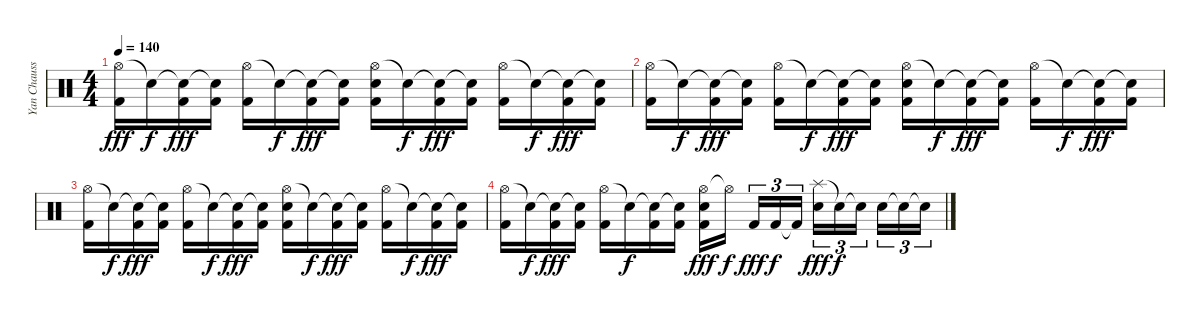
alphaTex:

\track ("Yan Chausse" "Yan Chauss") {instrument percussion}
\staff {score}
\articulation defaults
\ts (4 4)
\tempo 140
\clef neutral
\ks c
("Hi-Hat (open)" "Kick (hit) 2").16{dy fff} "Snare (hit)"{t}.16{dy f} ("Snare (hit)"{t} "Kick (hit) 2").16{dy fff} ("Snare (hit)"{t} "Kick (hit) 2").16 ("Hi-Hat (open)" "Kick (hit) 2").16 "Snare (hit)"{t}.16{dy f} ("Snare (hit)"{t} "Kick (hit) 2").16{dy fff} ("Snare (hit)"{t} "Kick (hit) 2").16 ("Hi-Hat (open)" "Snare (hit) 2" "Kick (hit) 2").16 "Snare (hit)"{t}.16{dy f} ("Snare (hit)"{t} "Kick (hit) 2").16{dy fff} ("Snare (hit)"{t} "Kick (hit) 2").16 ("Hi-Hat (open)" "Kick (hit) 2").16 "Snare (hit)"{t}.16{dy f} ("Snare (hit)"{t} "Kick (hit) 2").16{dy fff} ("Snare (hit)"{t} "Kick (hit) 2").16 |
("Hi-Hat (open)" "Kick (hit) 2").16 "Snare (hit)"{t}.16{dy f} ("Snare (hit)"{t} "Kick (hit) 2").16{dy fff} ("Snare (hit)"{t} "Kick (hit) 2").16 ("Hi-Hat (open)" "Kick (hit) 2").16 "Snare (hit)"{t}.16{dy f} ("Snare (hit)"{t} "Kick (hit) 2").16{dy fff} ("Snare (hit)"{t} "Kick (hit) 2").16 ("Hi-Hat (open)" "Snare (hit) 2" "Kick (hit) 2").16 "Snare (hit)"{t}.16{dy f} ("Snare (hit)"{t} "Kick (hit) 2").16{dy fff} ("Snare (hit)"{t} "Kick (hit) 2").16 ("Hi-Hat (open)" "Kick (hit) 2").16 "Snare (hit)"{t}.16{dy f} ("Snare (hit)"{t} "Kick (hit) 2").16{dy fff} ("Snare (hit)"{t} "Kick (hit) 2").16 |
("Hi-Hat (open)" "Kick (hit) 2").16 "Snare (hit)"{t}.16{dy f} ("Snare (hit)"{t} "Kick (hit) 2").16{dy fff} ("Snare (hit)"{t} "Kick (hit) 2").16 ("Hi-Hat (open)" "Kick (hit) 2").16 "Snare (hit)"{t}.16{dy f} ("Snare (hit)"{t} "Kick (hit) 2").16{dy fff} ("Snare (hit)"{t} "Kick (hit) 2").16 ("Hi-Hat (open)" "Snare (hit) 2" "Kick (hit) 2").16 "Snare (hit)"{t}.16{dy f} ("Snare (hit)"{t} "Kick (hit) 2").16{dy fff} ("Snare (hit)"{t} "Kick (hit) 2").16 ("Hi-Hat (open)" "Kick (hit) 2").16 "Snare (hit)"{t}.16{dy f} ("Snare (hit)"{t} "Kick (hit) 2").16{dy fff} ("Snare (hit)"{t} "Kick (hit) 2").16 |
("Hi-Hat (open)" "Kick (hit) 2").16 "Snare (hit)"{t}.16{dy f} ("Snare (hit)"{t} "Kick (hit) 2").16{dy fff} ("Snare (hit)"{t} "Kick (hit) 2").16 ("Hi-Hat (open)" "Kick (hit) 2").16 "Snare (hit)"{t}.16{dy f} ("Snare (hit)"{t} "Kick (hit) 2").16 ("Snare (hit)"{t} "Kick (hit) 2").16 ("Hi-Hat (open)" "Snare (hit) 2" "Kick (hit) 2").16{dy fff} "Hi-Hat (open)"{t}.16{dy f} "Kick (hit) 2".16{tu (3 2) dy fff} "Kick (hit) 2".16{tu (3 2) dy f} "Kick (hit) 2"{t}.16{tu (3 2)} ("Splash (hit)" "Snare (hit) 2").16{tu (3 2) dy fff} "Snare (hit) 2"{t}.16{tu (3 2) dy f} "Snare (hit) 2"{t}.16{tu (3 2)} "Snare (hit) 2".16{tu (3 2)} "Snare (hit)"{t}.16{tu (3 2)} "Snare (hit)"{t}.16{tu (3 2)}
